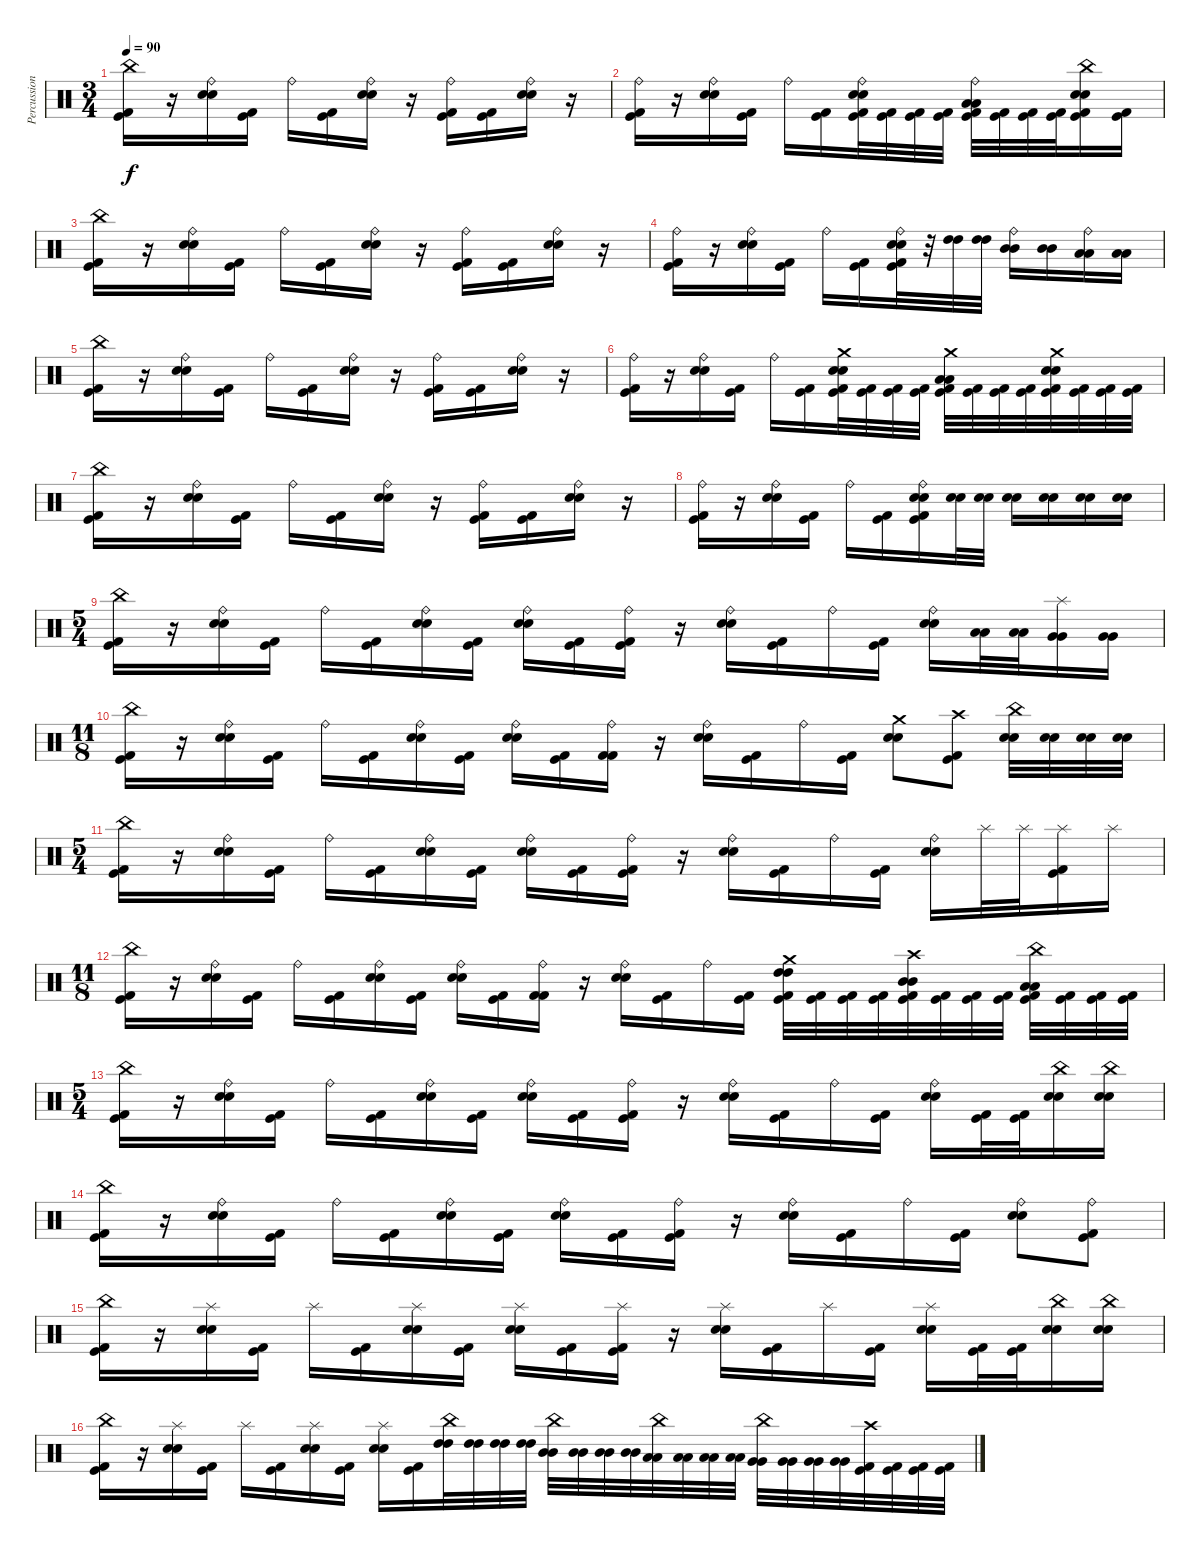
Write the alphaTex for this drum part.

\track ("Percussion" "Percussion") {instrument percussion}
\staff {score}
\articulation defaults
\ts (3 4)
\tempo 90
\clef neutral
\ks c
("China (hit)" "Kick (hit)" "Kick (hit) 2").16{dy f} r.16 ("Ride (bell)" "Electric Snare (hit)" "Snare (hit) 2").16 ("Kick (hit)" "Kick (hit) 2").16 "Ride (bell)".16 ("Kick (hit)" "Kick (hit) 2").16 ("Ride (bell)" "Electric Snare (hit)" "Snare (hit) 2").16 r.16 ("Ride (bell)" "Kick (hit)" "Kick (hit) 2").16 ("Kick (hit)" "Kick (hit) 2").16 ("Ride (bell)" "Electric Snare (hit)" "Snare (hit) 2").16 r.16 |
("Ride (bell)" "Kick (hit)" "Kick (hit) 2").16 r.16 ("Ride (bell)" "Electric Snare (hit)" "Snare (hit) 2").16 ("Kick (hit)" "Kick (hit) 2").16 "Ride (bell)".16 ("Kick (hit)" "Kick (hit) 2").16 ("Ride (bell)" "Electric Snare (hit)" "Snare (hit) 2" "Kick (hit)" "Kick (hit) 2").32 ("Kick (hit)" "Kick (hit) 2").32 ("Kick (hit)" "Kick (hit) 2").32 ("Kick (hit)" "Kick (hit) 2").32 ("Ride (bell)" "Low Tom (hit)" "Low Tom (hit)" "Kick (hit)" "Kick (hit) 2").32 ("Kick (hit)" "Kick (hit) 2").32 ("Kick (hit)" "Kick (hit) 2").32 ("Kick (hit)" "Kick (hit) 2").32 ("China (hit)" "Electric Snare (hit)" "Snare (hit) 2" "Kick (hit)" "Kick (hit) 2").16 ("Kick (hit)" "Kick (hit) 2").16 |
("China (hit)" "Kick (hit)" "Kick (hit) 2").16 r.16 ("Ride (bell)" "Electric Snare (hit)" "Snare (hit) 2").16 ("Kick (hit)" "Kick (hit) 2").16 "Ride (bell)".16 ("Kick (hit)" "Kick (hit) 2").16 ("Ride (bell)" "Electric Snare (hit)" "Snare (hit) 2").16 r.16 ("Ride (bell)" "Kick (hit)" "Kick (hit) 2").16 ("Kick (hit)" "Kick (hit) 2").16 ("Ride (bell)" "Electric Snare (hit)" "Snare (hit) 2").16 r.16 |
("Ride (bell)" "Kick (hit)" "Kick (hit) 2").16 r.16 ("Ride (bell)" "Electric Snare (hit)" "Snare (hit) 2").16 ("Kick (hit)" "Kick (hit) 2").16 "Ride (bell)".16 ("Kick (hit)" "Kick (hit) 2").16 ("Ride (bell)" "Electric Snare (hit)" "Snare (hit) 2" "Kick (hit)" "Kick (hit) 2").32 r.32 ("High Tom (hit)" "High Tom (hit)").32 ("High Tom (hit)" "High Tom (hit)").32 ("Ride (bell)" "Mid Tom (hit)" "Mid Tom (hit)").16 ("Mid Tom (hit)" "Mid Tom (hit)").16 ("Ride (bell)" "Low Tom (hit)" "Low Tom (hit)").16 ("Low Tom (hit)" "Low Tom (hit)").16 |
("China (hit)" "Kick (hit)" "Kick (hit) 2").16 r.16 ("Ride (bell)" "Electric Snare (hit)" "Snare (hit) 2").16 ("Kick (hit)" "Kick (hit) 2").16 "Ride (bell)".16 ("Kick (hit)" "Kick (hit) 2").16 ("Ride (bell)" "Electric Snare (hit)" "Snare (hit) 2").16 r.16 ("Ride (bell)" "Kick (hit)" "Kick (hit) 2").16 ("Kick (hit)" "Kick (hit) 2").16 ("Ride (bell)" "Electric Snare (hit)" "Snare (hit) 2").16 r.16 |
("Ride (bell)" "Kick (hit)" "Kick (hit) 2").16 r.16 ("Ride (bell)" "Electric Snare (hit)" "Snare (hit) 2").16 ("Kick (hit)" "Kick (hit) 2").16 "Ride (bell)".16 ("Kick (hit)" "Kick (hit) 2").16 ("Crash medium (hit)" "Electric Snare (hit)" "Snare (hit) 2" "Kick (hit)" "Kick (hit) 2").32 ("Kick (hit)" "Kick (hit) 2").32 ("Kick (hit)" "Kick (hit) 2").32 ("Kick (hit)" "Kick (hit) 2").32 ("Crash medium (hit)" "Low Tom (hit)" "Low Tom (hit)" "Kick (hit)" "Kick (hit) 2").32 ("Kick (hit)" "Kick (hit) 2").32 ("Kick (hit)" "Kick (hit) 2").32 ("Kick (hit)" "Kick (hit) 2").32 ("Crash medium (hit)" "Electric Snare (hit)" "Snare (hit) 2" "Kick (hit)" "Kick (hit) 2").32 ("Kick (hit)" "Kick (hit) 2").32 ("Kick (hit)" "Kick (hit) 2").32 ("Kick (hit)" "Kick (hit) 2").32 |
("China (hit)" "Kick (hit)" "Kick (hit) 2").16 r.16 ("Ride (bell)" "Electric Snare (hit)" "Snare (hit) 2").16 ("Kick (hit)" "Kick (hit) 2").16 "Ride (bell)".16 ("Kick (hit)" "Kick (hit) 2").16 ("Ride (bell)" "Electric Snare (hit)" "Snare (hit) 2").16 r.16 ("Ride (bell)" "Kick (hit)" "Kick (hit) 2").16 ("Kick (hit)" "Kick (hit) 2").16 ("Ride (bell)" "Electric Snare (hit)" "Snare (hit) 2").16 r.16 |
("Ride (bell)" "Kick (hit)" "Kick (hit) 2").16 r.16 ("Ride (bell)" "Electric Snare (hit)" "Snare (hit) 2").16 ("Kick (hit)" "Kick (hit) 2").16 "Ride (bell)".16 ("Kick (hit)" "Kick (hit) 2").16 ("Ride (bell)" "Electric Snare (hit)" "Snare (hit) 2" "Kick (hit)" "Kick (hit) 2").16 ("Electric Snare (hit)" "Snare (hit) 2").32 ("Electric Snare (hit)" "Snare (hit) 2").32 ("Electric Snare (hit)" "Snare (hit) 2").16 ("Electric Snare (hit)" "Snare (hit) 2").16 ("Electric Snare (hit)" "Snare (hit) 2").16 ("Electric Snare (hit)" "Snare (hit) 2").16 |
\ts (5 4)
("China (hit)" "Kick (hit)" "Kick (hit) 2").16 r.16 ("Ride (bell)" "Electric Snare (hit)" "Snare (hit) 2").16 ("Kick (hit)" "Kick (hit) 2").16 "Ride (bell)".16 ("Kick (hit)" "Kick (hit) 2").16 ("Ride (bell)" "Electric Snare (hit)" "Snare (hit) 2").16 ("Kick (hit)" "Kick (hit) 2").16 ("Ride (bell)" "Electric Snare (hit)" "Snare (hit) 2").16 ("Kick (hit)" "Kick (hit) 2").16 ("Ride (bell)" "Kick (hit)" "Kick (hit) 2").16 r.16 ("Ride (bell)" "Electric Snare (hit)" "Snare (hit) 2").16 ("Kick (hit)" "Kick (hit) 2").16 "Ride (bell)".16 ("Kick (hit)" "Kick (hit) 2").16 ("Ride (bell)" "Electric Snare (hit)" "Snare (hit) 2").16 ("Low Tom (hit)" "Low Tom (hit)").32 ("Low Tom (hit)" "Low Tom (hit)").32 ("Splash (hit)" "Very Low Tom (hit)" "Very Low Tom (hit)").16 ("Very Low Tom (hit)" "Very Low Tom (hit)").16 |
\ts (11 8)
("China (hit)" "Kick (hit)" "Kick (hit) 2").16 r.16 ("Ride (bell)" "Electric Snare (hit)" "Snare (hit) 2").16 ("Kick (hit)" "Kick (hit) 2").16 "Ride (bell)".16 ("Kick (hit)" "Kick (hit) 2").16 ("Ride (bell)" "Electric Snare (hit)" "Snare (hit) 2").16 ("Kick (hit)" "Kick (hit) 2").16 ("Ride (bell)" "Electric Snare (hit)" "Snare (hit) 2").16 ("Kick (hit)" "Kick (hit) 2").16 ("Ride (bell)" "Kick (hit) 2" "Kick (hit) 2").16 r.16 ("Ride (bell)" "Electric Snare (hit)" "Snare (hit) 2").16 ("Kick (hit)" "Kick (hit) 2").16 "Ride (bell)".16 ("Kick (hit)" "Kick (hit) 2").16 ("Crash medium (hit)" "Electric Snare (hit)" "Snare (hit) 2").8 ("Crash high (hit)" "Kick (hit)" "Kick (hit) 2").8 ("China (hit)" "Electric Snare (hit)" "Snare (hit) 2").32 ("Electric Snare (hit)" "Snare (hit) 2").32 ("Electric Snare (hit)" "Snare (hit) 2").32 ("Electric Snare (hit)" "Snare (hit) 2").32 |
\ts (5 4)
("China (hit)" "Kick (hit)" "Kick (hit) 2").16 r.16 ("Ride (bell)" "Electric Snare (hit)" "Snare (hit) 2").16 ("Kick (hit)" "Kick (hit) 2").16 "Ride (bell)".16 ("Kick (hit)" "Kick (hit) 2").16 ("Ride (bell)" "Electric Snare (hit)" "Snare (hit) 2").16 ("Kick (hit)" "Kick (hit) 2").16 ("Ride (bell)" "Electric Snare (hit)" "Snare (hit) 2").16 ("Kick (hit)" "Kick (hit) 2").16 ("Ride (bell)" "Kick (hit)" "Kick (hit) 2").16 r.16 ("Ride (bell)" "Electric Snare (hit)" "Snare (hit) 2").16 ("Kick (hit)" "Kick (hit) 2").16 "Ride (bell)".16 ("Kick (hit)" "Kick (hit) 2").16 ("Ride (bell)" "Electric Snare (hit)" "Snare (hit) 2").16 "Splash (hit)".32 "Splash (hit)".32 ("Splash (hit)" "Kick (hit)" "Kick (hit) 2").16 "Splash (hit)".16 |
\ts (11 8)
("China (hit)" "Kick (hit)" "Kick (hit) 2").16 r.16 ("Ride (bell)" "Electric Snare (hit)" "Snare (hit) 2").16 ("Kick (hit)" "Kick (hit) 2").16 "Ride (bell)".16 ("Kick (hit)" "Kick (hit) 2").16 ("Ride (bell)" "Electric Snare (hit)" "Snare (hit) 2").16 ("Kick (hit)" "Kick (hit) 2").16 ("Ride (bell)" "Electric Snare (hit)" "Snare (hit) 2").16 ("Kick (hit)" "Kick (hit) 2").16 ("Ride (bell)" "Kick (hit) 2" "Kick (hit) 2").16 r.16 ("Ride (bell)" "Electric Snare (hit)" "Snare (hit) 2").16 ("Kick (hit)" "Kick (hit) 2").16 "Ride (bell)".16 ("Kick (hit)" "Kick (hit) 2").16 ("Crash medium (hit)" "High Tom (hit)" "High Tom (hit)" "Kick (hit)" "Kick (hit) 2").32 ("Kick (hit)" "Kick (hit) 2").32 ("Kick (hit)" "Kick (hit) 2").32 ("Kick (hit)" "Kick (hit) 2").32 ("Crash high (hit)" "Mid Tom (hit)" "Mid Tom (hit)" "Kick (hit)" "Kick (hit) 2").32 ("Kick (hit)" "Kick (hit) 2").32 ("Kick (hit)" "Kick (hit) 2").32 ("Kick (hit)" "Kick (hit) 2").32 ("China (hit)" "Low Tom (hit)" "Low Tom (hit)" "Kick (hit)" "Kick (hit) 2").32 ("Kick (hit)" "Kick (hit) 2").32 ("Kick (hit)" "Kick (hit) 2").32 ("Kick (hit)" "Kick (hit) 2").32 |
\ts (5 4)
("China (hit)" "Kick (hit)" "Kick (hit) 2").16 r.16 ("Ride (bell)" "Electric Snare (hit)" "Snare (hit) 2").16 ("Kick (hit)" "Kick (hit) 2").16 "Ride (bell)".16 ("Kick (hit)" "Kick (hit) 2").16 ("Ride (bell)" "Electric Snare (hit)" "Snare (hit) 2").16 ("Kick (hit)" "Kick (hit) 2").16 ("Ride (bell)" "Electric Snare (hit)" "Snare (hit) 2").16 ("Kick (hit)" "Kick (hit) 2").16 ("Ride (bell)" "Kick (hit)" "Kick (hit) 2").16 r.16 ("Ride (bell)" "Electric Snare (hit)" "Snare (hit) 2").16 ("Kick (hit)" "Kick (hit) 2").16 "Ride (bell)".16 ("Kick (hit)" "Kick (hit) 2").16 ("Ride (bell)" "Electric Snare (hit)" "Snare (hit) 2").16 ("Kick (hit)" "Kick (hit) 2").32 ("Kick (hit)" "Kick (hit) 2").32 ("China (hit)" "Electric Snare (hit)" "Snare (hit) 2").16 ("China (hit)" "Electric Snare (hit)" "Snare (hit) 2").16 |
("China (hit)" "Kick (hit)" "Kick (hit) 2").16 r.16 ("Ride (bell)" "Electric Snare (hit)" "Snare (hit) 2").16 ("Kick (hit)" "Kick (hit) 2").16 "Ride (bell)".16 ("Kick (hit)" "Kick (hit) 2").16 ("Ride (bell)" "Electric Snare (hit)" "Snare (hit) 2").16 ("Kick (hit)" "Kick (hit) 2").16 ("Ride (bell)" "Electric Snare (hit)" "Snare (hit) 2").16 ("Kick (hit)" "Kick (hit) 2").16 ("Ride (bell)" "Kick (hit)" "Kick (hit) 2").16 r.16 ("Ride (bell)" "Electric Snare (hit)" "Snare (hit) 2").16 ("Kick (hit)" "Kick (hit) 2").16 "Ride (bell)".16 ("Kick (hit)" "Kick (hit) 2").16 ("Ride (bell)" "Electric Snare (hit)" "Snare (hit) 2").8 ("Ride (bell)" "Kick (hit)" "Kick (hit) 2").8 |
("China (hit)" "Kick (hit)" "Kick (hit) 2").16 r.16 ("Splash (hit)" "Electric Snare (hit)" "Snare (hit) 2").16 ("Kick (hit)" "Kick (hit) 2").16 "Splash (hit)".16 ("Kick (hit)" "Kick (hit) 2").16 ("Splash (hit)" "Electric Snare (hit)" "Snare (hit) 2").16 ("Kick (hit)" "Kick (hit) 2").16 ("Splash (hit)" "Electric Snare (hit)" "Snare (hit) 2").16 ("Kick (hit)" "Kick (hit) 2").16 ("Splash (hit)" "Kick (hit)" "Kick (hit) 2").16 r.16 ("Splash (hit)" "Electric Snare (hit)" "Snare (hit) 2").16 ("Kick (hit)" "Kick (hit) 2").16 "Splash (hit)".16 ("Kick (hit)" "Kick (hit) 2").16 ("Splash (hit)" "Electric Snare (hit)" "Snare (hit) 2").16 ("Kick (hit)" "Kick (hit) 2").32 ("Kick (hit)" "Kick (hit) 2").32 ("China (hit)" "Electric Snare (hit)" "Snare (hit) 2").16 ("China (hit)" "Electric Snare (hit)" "Snare (hit) 2").16 |
("China (hit)" "Kick (hit)" "Kick (hit) 2").16 r.16 ("Splash (hit)" "Electric Snare (hit)" "Snare (hit) 2").16 ("Kick (hit)" "Kick (hit) 2").16 "Splash (hit)".16 ("Kick (hit)" "Kick (hit) 2").16 ("Splash (hit)" "Electric Snare (hit)" "Snare (hit) 2").16 ("Kick (hit)" "Kick (hit) 2").16 ("Splash (hit)" "Electric Snare (hit)" "Snare (hit) 2").16 ("Kick (hit)" "Kick (hit) 2").16 ("China (hit)" "High Tom (hit)" "High Tom (hit)").32 ("High Tom (hit)" "High Tom (hit)").32 ("High Tom (hit)" "High Tom (hit)").32 ("High Tom (hit)" "High Tom (hit)").32 ("China (hit)" "Mid Tom (hit)" "Mid Tom (hit)").32 ("Mid Tom (hit)" "Mid Tom (hit)").32 ("Mid Tom (hit)" "Mid Tom (hit)").32 ("Mid Tom (hit)" "Mid Tom (hit)").32 ("China (hit)" "Low Tom (hit)" "Low Tom (hit)").32 ("Low Tom (hit)" "Low Tom (hit)").32 ("Low Tom (hit)" "Low Tom (hit)").32 ("Low Tom (hit)" "Low Tom (hit)").32 ("China (hit)" "Very Low Tom (hit)" "Very Low Tom (hit)").32 ("Very Low Tom (hit)" "Very Low Tom (hit)").32 ("Very Low Tom (hit)" "Very Low Tom (hit)").32 ("Very Low Tom (hit)" "Very Low Tom (hit)").32 ("Crash high (hit)" "Kick (hit)" "Kick (hit) 2").32 ("Kick (hit)" "Kick (hit) 2").32 ("Kick (hit)" "Kick (hit) 2").32 ("Kick (hit)" "Kick (hit) 2").32
